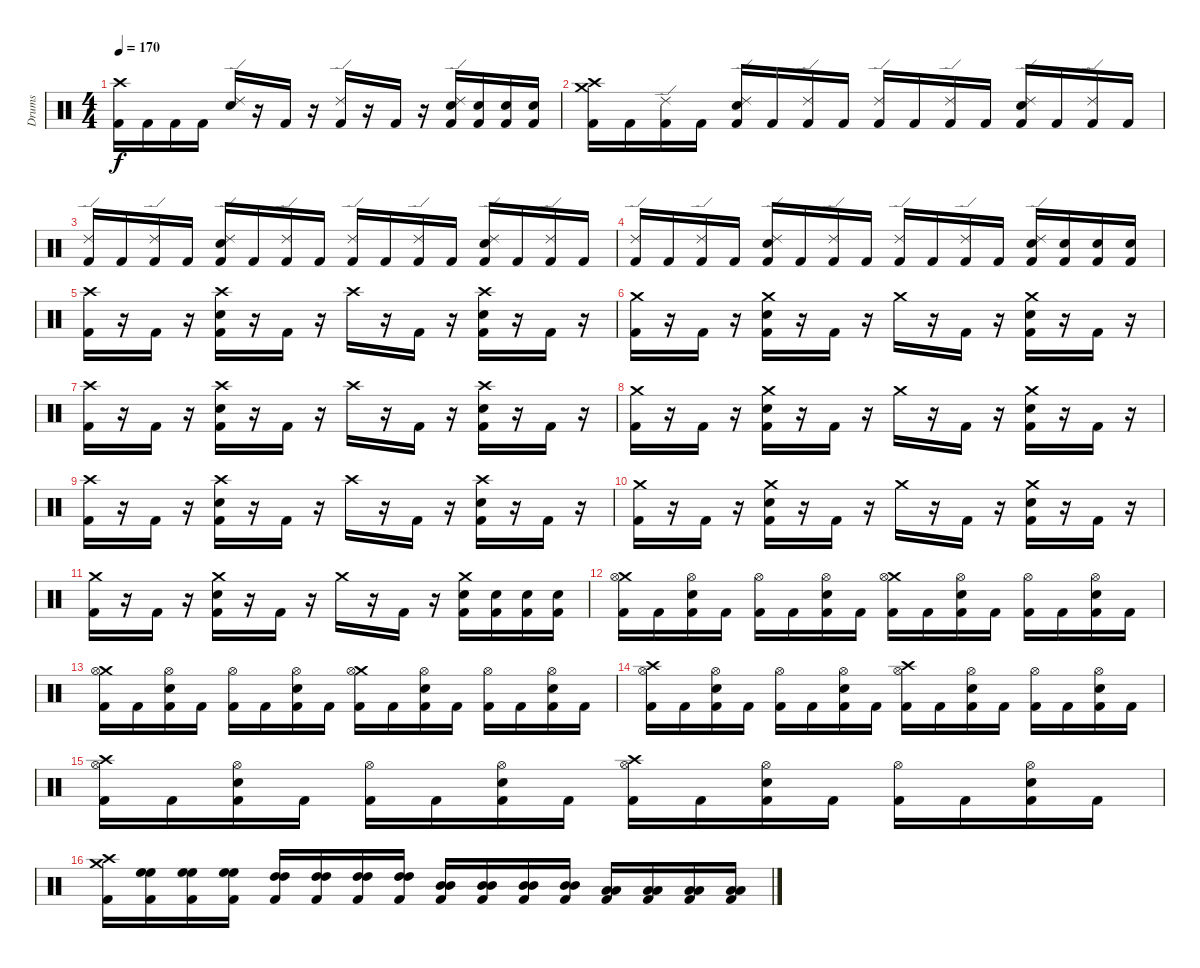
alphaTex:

\track ("Drums" "Drums") {instrument percussion}
\staff {score}
\articulation defaults
\ts (4 4)
\tempo 170
\clef neutral
\ks c
("Crash high (hit)" "Kick (hit) 2").16{dy f} "Kick (hit) 2".16 "Kick (hit) 2".16 "Kick (hit) 2".16 ("Ride (edge) 2" "Electric Snare (hit)").16 r.16 "Kick (hit) 2".16 r.16 ("Ride (edge) 2" "Kick (hit) 2").16 r.16 "Kick (hit) 2".16 r.16 ("Ride (edge) 2" "Electric Snare (hit)" "Kick (hit) 2").16 ("Electric Snare (hit)" "Kick (hit) 2").16 ("Electric Snare (hit)" "Kick (hit) 2").16 ("Electric Snare (hit)" "Kick (hit) 2").16 |
("Crash high (hit)" "Crash medium (hit)" "Kick (hit) 2").16 "Kick (hit) 2".16 ("Ride (edge) 2" "Kick (hit) 2").16 "Kick (hit) 2".16 ("Ride (edge) 2" "Electric Snare (hit)" "Kick (hit) 2").16 "Kick (hit) 2".16 ("Ride (edge) 2" "Kick (hit) 2").16 "Kick (hit) 2".16 ("Ride (edge) 2" "Kick (hit) 2").16 "Kick (hit) 2".16 ("Ride (edge) 2" "Kick (hit) 2").16 "Kick (hit) 2".16 ("Ride (edge) 2" "Electric Snare (hit)" "Kick (hit) 2").16 "Kick (hit) 2".16 ("Ride (edge) 2" "Kick (hit) 2").16 "Kick (hit) 2".16 |
("Ride (edge) 2" "Kick (hit) 2").16 "Kick (hit) 2".16 ("Ride (edge) 2" "Kick (hit) 2").16 "Kick (hit) 2".16 ("Ride (edge) 2" "Electric Snare (hit)" "Kick (hit) 2").16 "Kick (hit) 2".16 ("Ride (edge) 2" "Kick (hit) 2").16 "Kick (hit) 2".16 ("Ride (edge) 2" "Kick (hit) 2").16 "Kick (hit) 2".16 ("Ride (edge) 2" "Kick (hit) 2").16 "Kick (hit) 2".16 ("Ride (edge) 2" "Electric Snare (hit)" "Kick (hit) 2").16 "Kick (hit) 2".16 ("Ride (edge) 2" "Kick (hit) 2").16 "Kick (hit) 2".16 |
("Ride (edge) 2" "Kick (hit) 2").16 "Kick (hit) 2".16 ("Ride (edge) 2" "Kick (hit) 2").16 "Kick (hit) 2".16 ("Ride (edge) 2" "Electric Snare (hit)" "Kick (hit) 2").16 "Kick (hit) 2".16 ("Ride (edge) 2" "Kick (hit) 2").16 "Kick (hit) 2".16 ("Ride (edge) 2" "Kick (hit) 2").16 "Kick (hit) 2".16 ("Ride (edge) 2" "Kick (hit) 2").16 "Kick (hit) 2".16 ("Ride (edge) 2" "Electric Snare (hit)" "Kick (hit) 2").16 ("Electric Snare (hit)" "Kick (hit) 2").16 ("Electric Snare (hit)" "Kick (hit) 2").16 ("Electric Snare (hit)" "Kick (hit) 2").16 |
("Crash high (hit)" "Kick (hit) 2").16 r.16 "Kick (hit) 2".16 r.16 ("Crash high (hit)" "Electric Snare (hit)" "Kick (hit) 2").16 r.16 "Kick (hit) 2".16 r.16 "Crash high (hit)".16 r.16 "Kick (hit) 2".16 r.16 ("Crash high (hit)" "Electric Snare (hit)" "Kick (hit) 2").16 r.16 "Kick (hit) 2".16 r.16 |
("Crash medium (hit)" "Kick (hit) 2").16 r.16 "Kick (hit) 2".16 r.16 ("Crash medium (hit)" "Electric Snare (hit)" "Kick (hit) 2").16 r.16 "Kick (hit) 2".16 r.16 "Crash medium (hit)".16 r.16 "Kick (hit) 2".16 r.16 ("Crash medium (hit)" "Electric Snare (hit)" "Kick (hit) 2").16 r.16 "Kick (hit) 2".16 r.16 |
("Crash high (hit)" "Kick (hit) 2").16 r.16 "Kick (hit) 2".16 r.16 ("Crash high (hit)" "Electric Snare (hit)" "Kick (hit) 2").16 r.16 "Kick (hit) 2".16 r.16 "Crash high (hit)".16 r.16 "Kick (hit) 2".16 r.16 ("Crash high (hit)" "Electric Snare (hit)" "Kick (hit) 2").16 r.16 "Kick (hit) 2".16 r.16 |
("Crash medium (hit)" "Kick (hit) 2").16 r.16 "Kick (hit) 2".16 r.16 ("Crash medium (hit)" "Electric Snare (hit)" "Kick (hit) 2").16 r.16 "Kick (hit) 2".16 r.16 "Crash medium (hit)".16 r.16 "Kick (hit) 2".16 r.16 ("Crash medium (hit)" "Electric Snare (hit)" "Kick (hit) 2").16 r.16 "Kick (hit) 2".16 r.16 |
("Crash high (hit)" "Kick (hit) 2").16 r.16 "Kick (hit) 2".16 r.16 ("Crash high (hit)" "Electric Snare (hit)" "Kick (hit) 2").16 r.16 "Kick (hit) 2".16 r.16 "Crash high (hit)".16 r.16 "Kick (hit) 2".16 r.16 ("Crash high (hit)" "Electric Snare (hit)" "Kick (hit) 2").16 r.16 "Kick (hit) 2".16 r.16 |
("Crash medium (hit)" "Kick (hit) 2").16 r.16 "Kick (hit) 2".16 r.16 ("Crash medium (hit)" "Electric Snare (hit)" "Kick (hit) 2").16 r.16 "Kick (hit) 2".16 r.16 "Crash medium (hit)".16 r.16 "Kick (hit) 2".16 r.16 ("Crash medium (hit)" "Electric Snare (hit)" "Kick (hit) 2").16 r.16 "Kick (hit) 2".16 r.16 |
("Crash medium (hit)" "Kick (hit) 2").16 r.16 "Kick (hit) 2".16 r.16 ("Crash medium (hit)" "Electric Snare (hit)" "Kick (hit) 2").16 r.16 "Kick (hit) 2".16 r.16 "Crash medium (hit)".16 r.16 "Kick (hit) 2".16 r.16 ("Crash medium (hit)" "Electric Snare (hit)" "Kick (hit) 2").16 ("Electric Snare (hit)" "Kick (hit) 2").16 ("Electric Snare (hit)" "Kick (hit) 2").16 ("Electric Snare (hit)" "Kick (hit) 2").16 |
("Crash medium (hit)" "Hi-Hat (open)" "Kick (hit) 2").16 "Kick (hit) 2".16 ("Hi-Hat (open)" "Electric Snare (hit)" "Kick (hit) 2").16 "Kick (hit) 2".16 ("Hi-Hat (open)" "Kick (hit) 2").16 "Kick (hit) 2".16 ("Hi-Hat (open)" "Electric Snare (hit)" "Kick (hit) 2").16 "Kick (hit) 2".16 ("Crash medium (hit)" "Hi-Hat (open)" "Kick (hit) 2").16 "Kick (hit) 2".16 ("Hi-Hat (open)" "Electric Snare (hit)" "Kick (hit) 2").16 "Kick (hit) 2".16 ("Hi-Hat (open)" "Kick (hit) 2").16 "Kick (hit) 2".16 ("Hi-Hat (open)" "Electric Snare (hit)" "Kick (hit) 2").16 "Kick (hit) 2".16 |
("Crash medium (hit)" "Hi-Hat (open)" "Kick (hit) 2").16 "Kick (hit) 2".16 ("Hi-Hat (open)" "Electric Snare (hit)" "Kick (hit) 2").16 "Kick (hit) 2".16 ("Hi-Hat (open)" "Kick (hit) 2").16 "Kick (hit) 2".16 ("Hi-Hat (open)" "Electric Snare (hit)" "Kick (hit) 2").16 "Kick (hit) 2".16 ("Crash medium (hit)" "Hi-Hat (open)" "Kick (hit) 2").16 "Kick (hit) 2".16 ("Hi-Hat (open)" "Electric Snare (hit)" "Kick (hit) 2").16 "Kick (hit) 2".16 ("Hi-Hat (open)" "Kick (hit) 2").16 "Kick (hit) 2".16 ("Hi-Hat (open)" "Electric Snare (hit)" "Kick (hit) 2").16 "Kick (hit) 2".16 |
("Crash high (hit)" "Hi-Hat (open)" "Kick (hit) 2").16 "Kick (hit) 2".16 ("Hi-Hat (open)" "Electric Snare (hit)" "Kick (hit) 2").16 "Kick (hit) 2".16 ("Hi-Hat (open)" "Kick (hit) 2").16 "Kick (hit) 2".16 ("Hi-Hat (open)" "Electric Snare (hit)" "Kick (hit) 2").16 "Kick (hit) 2".16 ("Crash high (hit)" "Hi-Hat (open)" "Kick (hit) 2").16 "Kick (hit) 2".16 ("Hi-Hat (open)" "Electric Snare (hit)" "Kick (hit) 2").16 "Kick (hit) 2".16 ("Hi-Hat (open)" "Kick (hit) 2").16 "Kick (hit) 2".16 ("Hi-Hat (open)" "Electric Snare (hit)" "Kick (hit) 2").16 "Kick (hit) 2".16 |
("Crash high (hit)" "Hi-Hat (open)" "Kick (hit) 2").16 "Kick (hit) 2".16 ("Hi-Hat (open)" "Electric Snare (hit)" "Kick (hit) 2").16 "Kick (hit) 2".16 ("Hi-Hat (open)" "Kick (hit) 2").16 "Kick (hit) 2".16 ("Hi-Hat (open)" "Electric Snare (hit)" "Kick (hit) 2").16 "Kick (hit) 2".16 ("Crash high (hit)" "Hi-Hat (open)" "Kick (hit) 2").16 "Kick (hit) 2".16 ("Hi-Hat (open)" "Electric Snare (hit)" "Kick (hit) 2").16 "Kick (hit) 2".16 ("Hi-Hat (open)" "Kick (hit) 2").16 "Kick (hit) 2".16 ("Hi-Hat (open)" "Electric Snare (hit)" "Kick (hit) 2").16 "Kick (hit) 2".16 |
("Crash high (hit)" "Crash medium (hit)" "Kick (hit) 2").16 ("High Floor Tom (hit)" "High Floor Tom (hit)" "Kick (hit) 2").16 ("High Floor Tom (hit)" "High Floor Tom (hit)" "Kick (hit) 2").16 ("High Floor Tom (hit)" "High Floor Tom (hit)" "Kick (hit) 2").16 ("High Tom (hit)" "High Tom (hit)" "Kick (hit) 2").16 ("High Tom (hit)" "High Tom (hit)" "Kick (hit) 2").16 ("High Tom (hit)" "High Tom (hit)" "Kick (hit) 2").16 ("High Tom (hit)" "High Tom (hit)" "Kick (hit) 2").16 ("Mid Tom (hit)" "Mid Tom (hit)" "Kick (hit) 2").16 ("Mid Tom (hit)" "Mid Tom (hit)" "Kick (hit) 2").16 ("Mid Tom (hit)" "Mid Tom (hit)" "Kick (hit) 2").16 ("Mid Tom (hit)" "Mid Tom (hit)" "Kick (hit) 2").16 ("Low Tom (hit)" "Low Tom (hit)" "Kick (hit) 2").16 ("Low Tom (hit)" "Low Tom (hit)" "Kick (hit) 2").16 ("Low Tom (hit)" "Low Tom (hit)" "Kick (hit) 2").16 ("Low Tom (hit)" "Low Tom (hit)" "Kick (hit) 2").16
